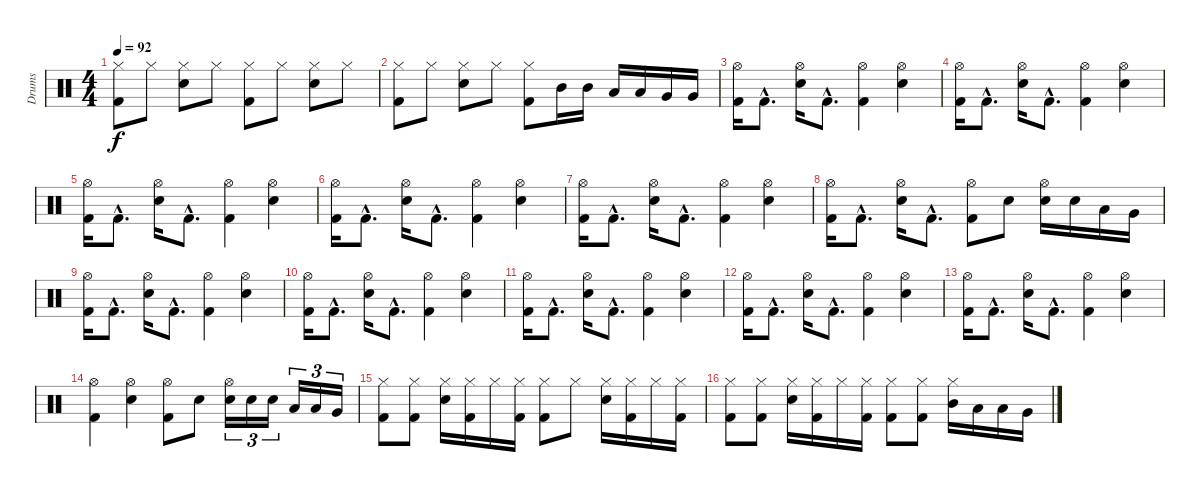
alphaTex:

\track ("Drums" "Drums") {instrument percussion}
\staff {score}
\articulation defaults
\ts (4 4)
\tempo 92
\clef neutral
\ks c
("Hi-Hat (closed)" "Kick (hit) 2").8{dy f} "Hi-Hat (closed)".8 ("Hi-Hat (closed)" "Electric Snare (hit)").8 "Hi-Hat (closed)".8 ("Hi-Hat (closed)" "Kick (hit) 2").8 "Hi-Hat (closed)".8 ("Hi-Hat (closed)" "Electric Snare (hit)").8 "Hi-Hat (closed)".8 |
("Hi-Hat (closed)" "Kick (hit) 2").8 "Hi-Hat (closed)".8 ("Hi-Hat (closed)" "Electric Snare (hit)").8 "Hi-Hat (closed)".8 ("Hi-Hat (closed)" "Kick (hit) 2").8 "Mid Tom (hit)".16 "Mid Tom (hit)".16 "Low Tom (hit)".16 "Low Tom (hit)".16 "Very Low Tom (hit)".16 "Very Low Tom (hit)".16 |
("Hi-Hat (open)" "Kick (hit) 2").16 "Kick (hit) 2"{hac}.8{d} ("Hi-Hat (open)" "Electric Snare (hit)").16 "Kick (hit) 2"{hac}.8{d} ("Hi-Hat (open)" "Kick (hit) 2").4 ("Hi-Hat (open)" "Electric Snare (hit)").4 |
("Hi-Hat (open)" "Kick (hit) 2").16 "Kick (hit) 2"{hac}.8{d} ("Hi-Hat (open)" "Electric Snare (hit)").16 "Kick (hit) 2"{hac}.8{d} ("Hi-Hat (open)" "Kick (hit) 2").4 ("Hi-Hat (open)" "Electric Snare (hit)").4 |
("Hi-Hat (open)" "Kick (hit) 2").16 "Kick (hit) 2"{hac}.8{d} ("Hi-Hat (open)" "Electric Snare (hit)").16 "Kick (hit) 2"{hac}.8{d} ("Hi-Hat (open)" "Kick (hit) 2").4 ("Hi-Hat (open)" "Electric Snare (hit)").4 |
("Hi-Hat (open)" "Kick (hit) 2").16 "Kick (hit) 2"{hac}.8{d} ("Hi-Hat (open)" "Electric Snare (hit)").16 "Kick (hit) 2"{hac}.8{d} ("Hi-Hat (open)" "Kick (hit) 2").4 ("Hi-Hat (open)" "Electric Snare (hit)").4 |
("Hi-Hat (open)" "Kick (hit) 2").16 "Kick (hit) 2"{hac}.8{d} ("Hi-Hat (open)" "Electric Snare (hit)").16 "Kick (hit) 2"{hac}.8{d} ("Hi-Hat (open)" "Kick (hit) 2").4 ("Hi-Hat (open)" "Electric Snare (hit)").4 |
("Hi-Hat (open)" "Kick (hit) 2").16 "Kick (hit) 2"{hac}.8{d} ("Hi-Hat (open)" "Electric Snare (hit)").16 "Kick (hit) 2"{hac}.8{d} ("Hi-Hat (open)" "Kick (hit) 2").8 "Electric Snare (hit)".8 ("Hi-Hat (open)" "Electric Snare (hit)").16 "Electric Snare (hit)".16 "Low Tom (hit)".16 "Very Low Tom (hit)".16 |
("Hi-Hat (open)" "Kick (hit) 2").16 "Kick (hit) 2"{hac}.8{d} ("Hi-Hat (open)" "Electric Snare (hit)").16 "Kick (hit) 2"{hac}.8{d} ("Hi-Hat (open)" "Kick (hit) 2").4 ("Hi-Hat (open)" "Electric Snare (hit)").4 |
("Hi-Hat (open)" "Kick (hit) 2").16 "Kick (hit) 2"{hac}.8{d} ("Hi-Hat (open)" "Electric Snare (hit)").16 "Kick (hit) 2"{hac}.8{d} ("Hi-Hat (open)" "Kick (hit) 2").4 ("Hi-Hat (open)" "Electric Snare (hit)").4 |
("Hi-Hat (open)" "Kick (hit) 2").16 "Kick (hit) 2"{hac}.8{d} ("Hi-Hat (open)" "Electric Snare (hit)").16 "Kick (hit) 2"{hac}.8{d} ("Hi-Hat (open)" "Kick (hit) 2").4 ("Hi-Hat (open)" "Electric Snare (hit)").4 |
("Hi-Hat (open)" "Kick (hit) 2").16 "Kick (hit) 2"{hac}.8{d} ("Hi-Hat (open)" "Electric Snare (hit)").16 "Kick (hit) 2"{hac}.8{d} ("Hi-Hat (open)" "Kick (hit) 2").4 ("Hi-Hat (open)" "Electric Snare (hit)").4 |
("Hi-Hat (open)" "Kick (hit) 2").16 "Kick (hit) 2"{hac}.8{d} ("Hi-Hat (open)" "Electric Snare (hit)").16 "Kick (hit) 2"{hac}.8{d} ("Hi-Hat (open)" "Kick (hit) 2").4 ("Hi-Hat (open)" "Electric Snare (hit)").4 |
("Hi-Hat (open)" "Kick (hit) 2").4 ("Hi-Hat (open)" "Electric Snare (hit)").4 ("Hi-Hat (open)" "Kick (hit) 2").8 "Electric Snare (hit)".8 ("Hi-Hat (open)" "Electric Snare (hit)").16{tu (3 2)} "Electric Snare (hit)".16{tu (3 2)} "Electric Snare (hit)".16{tu (3 2)} "Low Tom (hit)".16{tu (3 2)} "Low Tom (hit)".16{tu (3 2)} "Very Low Tom (hit)".16{tu (3 2)} |
("Hi-Hat (closed)" "Kick (hit) 2").8 ("Hi-Hat (closed)" "Kick (hit) 2").8 ("Hi-Hat (closed)" "Electric Snare (hit)").16 ("Hi-Hat (closed)" "Kick (hit) 2").16 "Hi-Hat (closed)".16 ("Hi-Hat (closed)" "Kick (hit) 2").16 ("Hi-Hat (closed)" "Kick (hit) 2").8 "Hi-Hat (closed)".8 ("Hi-Hat (closed)" "Electric Snare (hit)").16 ("Hi-Hat (closed)" "Kick (hit) 2").16 "Hi-Hat (closed)".16 ("Hi-Hat (closed)" "Kick (hit) 2").16 |
("Hi-Hat (closed)" "Kick (hit) 2").8 ("Hi-Hat (closed)" "Kick (hit) 2").8 ("Hi-Hat (closed)" "Electric Snare (hit)").16 ("Hi-Hat (closed)" "Kick (hit) 2").16 "Hi-Hat (closed)".16 ("Hi-Hat (closed)" "Kick (hit) 2").16 ("Hi-Hat (closed)" "Kick (hit) 2").8 ("Hi-Hat (closed)" "Kick (hit) 2").8 ("Hi-Hat (closed)" "Mid Tom (hit)").16 "Low Tom (hit)".16 "Low Tom (hit)".16 "Very Low Tom (hit)".16
